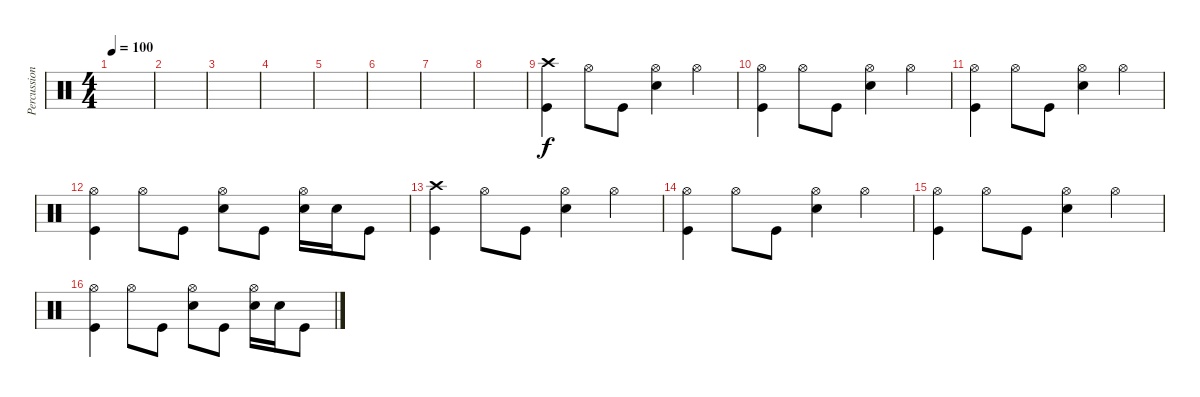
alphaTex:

\track ("Percussion" "Percussion") {instrument percussion}
\staff {score}
\articulation defaults
\ts (4 4)
\tempo 100
\clef neutral
\ks c
|
|
|
|
|
|
|
|
("Crash high (hit)" "Kick (hit)").4 "Hi-Hat (open)".8 "Kick (hit)".8 ("Hi-Hat (open)" "Snare (hit) 2").4 "Hi-Hat (open)".4 |
("Hi-Hat (open)" "Kick (hit)").4 "Hi-Hat (open)".8 "Kick (hit)".8 ("Hi-Hat (open)" "Snare (hit) 2").4 "Hi-Hat (open)".4 |
("Hi-Hat (open)" "Kick (hit)").4 "Hi-Hat (open)".8 "Kick (hit)".8 ("Hi-Hat (open)" "Snare (hit) 2").4 "Hi-Hat (open)".4 |
("Hi-Hat (open)" "Kick (hit)").4 "Hi-Hat (open)".8 "Kick (hit)".8 ("Hi-Hat (open)" "Snare (hit) 2").8 "Kick (hit)".8 ("Hi-Hat (open)" "Snare (hit) 2").16 "Snare (hit) 2".16 "Kick (hit)".8 |
("Crash high (hit)" "Kick (hit)").4 "Hi-Hat (open)".8 "Kick (hit)".8 ("Hi-Hat (open)" "Snare (hit) 2").4 "Hi-Hat (open)".4 |
("Hi-Hat (open)" "Kick (hit)").4 "Hi-Hat (open)".8 "Kick (hit)".8 ("Hi-Hat (open)" "Snare (hit) 2").4 "Hi-Hat (open)".4 |
("Hi-Hat (open)" "Kick (hit)").4 "Hi-Hat (open)".8 "Kick (hit)".8 ("Hi-Hat (open)" "Snare (hit) 2").4 "Hi-Hat (open)".4 |
("Hi-Hat (open)" "Kick (hit)").4 "Hi-Hat (open)".8 "Kick (hit)".8 ("Hi-Hat (open)" "Snare (hit) 2").8 "Kick (hit)".8 ("Hi-Hat (open)" "Snare (hit) 2").16 "Snare (hit) 2".16 "Kick (hit)".8
